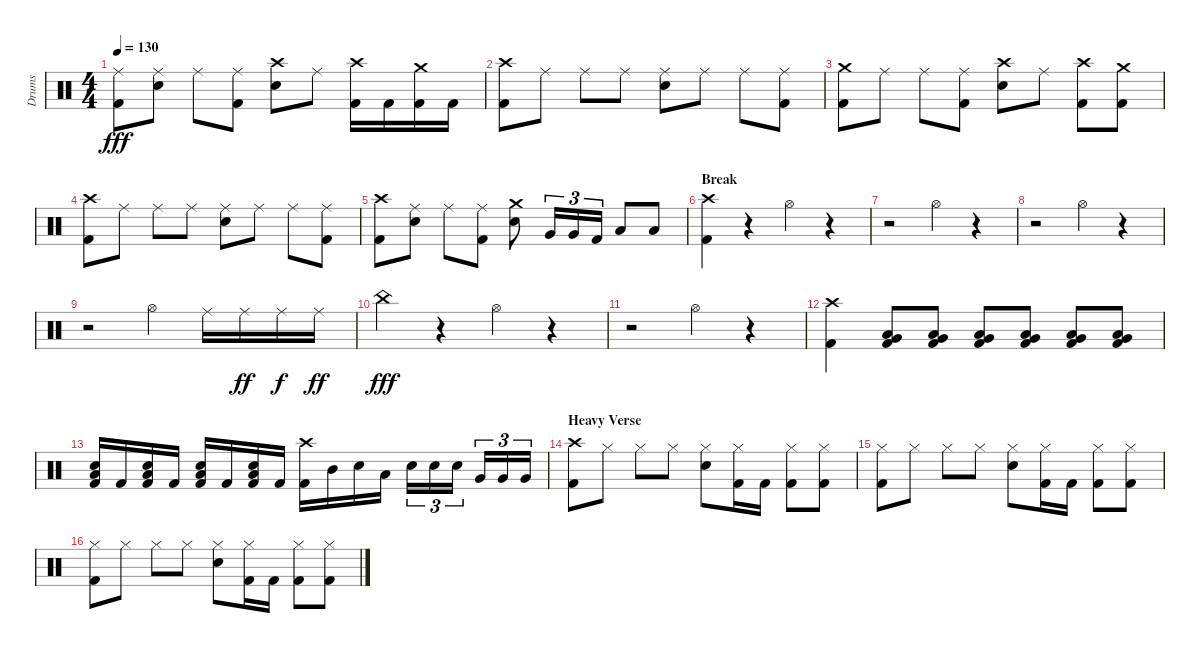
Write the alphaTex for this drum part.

\track ("Drums" "Drums") {instrument percussion}
\staff {score}
\articulation defaults
\ts (4 4)
\tempo 130
\clef neutral
\ks aminor
("Kick (hit) 2" "Ride (middle)").8{dy fff} ("Snare (hit) 2" "Ride (middle)").8 "Ride (middle)".8 ("Kick (hit) 2" "Ride (middle)").8 ("Snare (hit) 2" "Crash high (hit)").8 "Ride (middle)".8 ("Kick (hit) 2" "Crash high (hit)").16 "Kick (hit) 2".16 ("Kick (hit) 2" "Crash medium (hit)").16 "Kick (hit) 2".16 |
("Kick (hit) 2" "Crash high (hit)").8 "Ride (middle)".8 "Ride (middle)".8 "Ride (middle)".8 ("Snare (hit) 2" "Ride (middle)").8 "Ride (middle)".8 "Ride (middle)".8 ("Kick (hit) 2" "Ride (middle)").8 |
("Kick (hit) 2" "Crash medium (hit)").8 "Ride (middle)".8 "Ride (middle)".8 ("Kick (hit) 2" "Ride (middle)").8 ("Snare (hit) 2" "Crash high (hit)").8 "Ride (middle)".8 ("Kick (hit) 2" "Crash high (hit)").8 ("Kick (hit) 2" "Crash medium (hit)").8 |
("Kick (hit) 2" "Crash high (hit)").8 "Ride (middle)".8 "Ride (middle)".8 "Ride (middle)".8 ("Snare (hit) 2" "Ride (middle)").8 "Ride (middle)".8 "Ride (middle)".8 ("Kick (hit) 2" "Ride (middle)").8 |
("Kick (hit) 2" "Crash high (hit)").8 ("Snare (hit) 2" "Ride (middle)").8 "Ride (middle)".8 ("Kick (hit) 2" "Ride (middle)").8 ("Snare (hit) 2" "Crash medium (hit)").8 "Very Low Tom (hit)".16{tu (3 2)} "Very Low Tom (hit)".16{tu (3 2)} "Kick (hit) 2".16{tu (3 2)} "Low Floor Tom (hit)".8 "Low Floor Tom (hit)".8 |
\section ("" "Break")
("Kick (hit) 2" "Crash high (hit)").4 r.4 "Hi-Hat (open)".4 r.4 |
r.2 "Hi-Hat (open)".4 r.4 |
r.2 "Hi-Hat (open)".4 r.4 |
r.2 "Hi-Hat (open)".4 "Ride (middle)".16 "Ride (middle)".16{dy ff} "Ride (middle)".16{dy f} "Ride (middle)".16{dy ff} |
"China (hit)".4{dy fff} r.4 "Hi-Hat (open)".4 r.4 |
r.2 "Hi-Hat (open)".4 r.4 |
("Kick (hit) 2" "Crash high (hit)").4 ("Kick (hit) 2" "Low Floor Tom (hit)" "Very Low Tom (hit)").8 ("Kick (hit) 2" "Low Floor Tom (hit)" "Very Low Tom (hit)").8 ("Kick (hit) 2" "Low Floor Tom (hit)" "Very Low Tom (hit)").8 ("Kick (hit) 2" "Low Floor Tom (hit)" "Very Low Tom (hit)").8 ("Kick (hit) 2" "Low Floor Tom (hit)" "Very Low Tom (hit)").8 ("Kick (hit) 2" "Low Floor Tom (hit)" "Very Low Tom (hit)").8 |
("Kick (hit) 2" "Snare (hit) 2" "Low Floor Tom (hit)").16 "Kick (hit) 2".16 ("Kick (hit) 2" "Snare (hit) 2" "Low Floor Tom (hit)").16 "Kick (hit) 2".16 ("Kick (hit) 2" "Snare (hit) 2" "Low Floor Tom (hit)").16 "Kick (hit) 2".16 ("Kick (hit) 2" "Snare (hit) 2" "Low Floor Tom (hit)").16 "Kick (hit) 2".16 ("Kick (hit) 2" "Crash high (hit)").16 "Mid Tom (hit)".16 "Snare (hit) 2".16 "Low Tom (hit)".16 "Snare (hit) 2".16{tu (3 2)} "Snare (hit) 2".16{tu (3 2)} "Snare (hit) 2".16{tu (3 2)} "Very Low Tom (hit)".16{tu (3 2)} "Very Low Tom (hit)".16{tu (3 2)} "Very Low Tom (hit)".16{tu (3 2)} |
\section ("" "Heavy Verse")
("Kick (hit) 2" "Crash high (hit)").8 "Hi-Hat (closed)".8 "Hi-Hat (closed)".8 "Hi-Hat (closed)".8 ("Snare (hit) 2" "Hi-Hat (closed)").8 ("Kick (hit) 2" "Hi-Hat (closed)").16 "Kick (hit) 2".16 ("Kick (hit) 2" "Hi-Hat (closed)").8 ("Kick (hit) 2" "Hi-Hat (closed)").8 |
("Kick (hit) 2" "Hi-Hat (closed)").8 "Hi-Hat (closed)".8 "Hi-Hat (closed)".8 "Hi-Hat (closed)".8 ("Snare (hit) 2" "Hi-Hat (closed)").8 ("Kick (hit) 2" "Hi-Hat (closed)").16 "Kick (hit) 2".16 ("Kick (hit) 2" "Hi-Hat (closed)").8 ("Kick (hit) 2" "Hi-Hat (closed)").8 |
("Kick (hit) 2" "Hi-Hat (closed)").8 "Hi-Hat (closed)".8 "Hi-Hat (closed)".8 "Hi-Hat (closed)".8 ("Snare (hit) 2" "Hi-Hat (closed)").8 ("Kick (hit) 2" "Hi-Hat (closed)").16 "Kick (hit) 2".16 ("Kick (hit) 2" "Hi-Hat (closed)").8 ("Kick (hit) 2" "Hi-Hat (closed)").8
